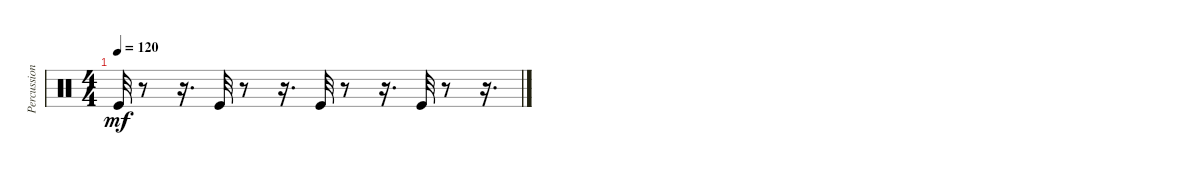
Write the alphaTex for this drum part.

\track ("Percussion" "Percussion") {instrument percussion}
\staff {score}
\articulation defaults
\ts (4 4)
\tempo 120
\clef neutral
\ks c "Kick (hit)".32{dy mf}
r.8 r.16{d} "Kick (hit)".32 r.8 r.16{d} "Kick (hit)".32 r.8 r.16{d} "Kick (hit)".32 r.8 r.16{d}
